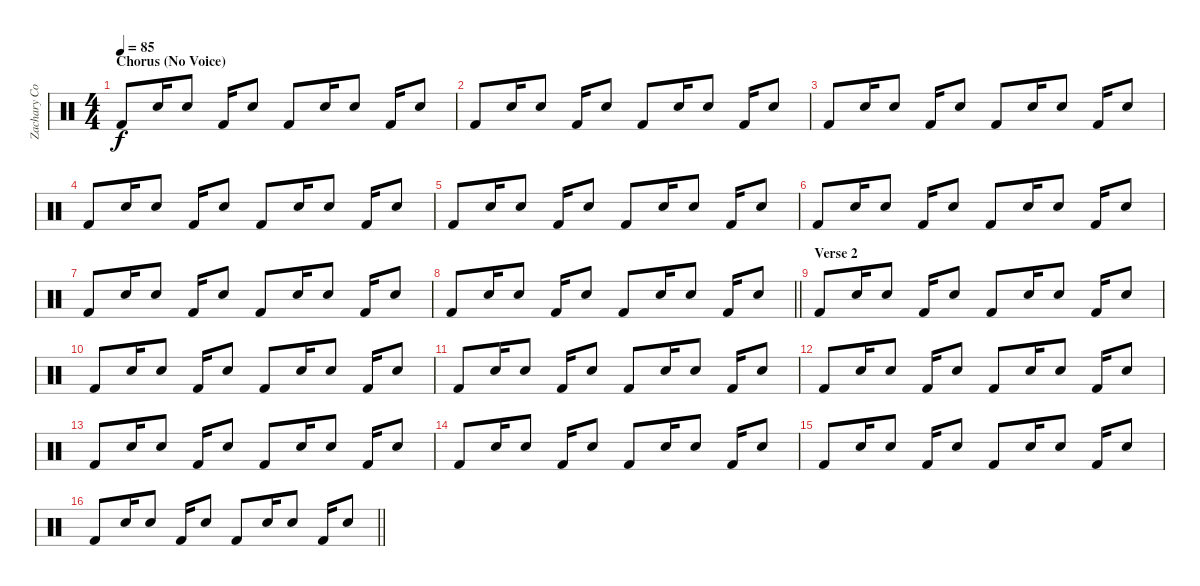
\track ("Zachary Cole Smith" "Zachary Co") {instrument percussion}
\staff {score}
\articulation defaults
\ts (4 4)
\section ("" "Chorus (No Voice)")
\tempo 85
\clef neutral
\ks c "Kick (hit) 2".8{dy f} "Electric Snare (hit)".16 "Electric Snare (hit)".8 "Kick (hit) 2".16 "Electric Snare (hit)".8 "Kick (hit) 2".8 "Electric Snare (hit)".16 "Electric Snare (hit)".8 "Kick (hit) 2".16 "Electric Snare (hit)".8
|
"Kick (hit) 2".8 "Electric Snare (hit)".16 "Electric Snare (hit)".8 "Kick (hit) 2".16 "Electric Snare (hit)".8 "Kick (hit) 2".8 "Electric Snare (hit)".16 "Electric Snare (hit)".8 "Kick (hit) 2".16 "Electric Snare (hit)".8 |
"Kick (hit) 2".8 "Electric Snare (hit)".16 "Electric Snare (hit)".8 "Kick (hit) 2".16 "Electric Snare (hit)".8 "Kick (hit) 2".8 "Electric Snare (hit)".16 "Electric Snare (hit)".8 "Kick (hit) 2".16 "Electric Snare (hit)".8 |
"Kick (hit) 2".8 "Electric Snare (hit)".16 "Electric Snare (hit)".8 "Kick (hit) 2".16 "Electric Snare (hit)".8 "Kick (hit) 2".8 "Electric Snare (hit)".16 "Electric Snare (hit)".8 "Kick (hit) 2".16 "Electric Snare (hit)".8 |
"Kick (hit) 2".8 "Electric Snare (hit)".16 "Electric Snare (hit)".8 "Kick (hit) 2".16 "Electric Snare (hit)".8 "Kick (hit) 2".8 "Electric Snare (hit)".16 "Electric Snare (hit)".8 "Kick (hit) 2".16 "Electric Snare (hit)".8 |
"Kick (hit) 2".8 "Electric Snare (hit)".16 "Electric Snare (hit)".8 "Kick (hit) 2".16 "Electric Snare (hit)".8 "Kick (hit) 2".8 "Electric Snare (hit)".16 "Electric Snare (hit)".8 "Kick (hit) 2".16 "Electric Snare (hit)".8 |
"Kick (hit) 2".8 "Electric Snare (hit)".16 "Electric Snare (hit)".8 "Kick (hit) 2".16 "Electric Snare (hit)".8 "Kick (hit) 2".8 "Electric Snare (hit)".16 "Electric Snare (hit)".8 "Kick (hit) 2".16 "Electric Snare (hit)".8 |
\barLineRight lightlight "Kick (hit) 2".8 "Electric Snare (hit)".16 "Electric Snare (hit)".8 "Kick (hit) 2".16 "Electric Snare (hit)".8 "Kick (hit) 2".8 "Electric Snare (hit)".16 "Electric Snare (hit)".8 "Kick (hit) 2".16 "Electric Snare (hit)".8
|
\section ("" "Verse 2")
"Kick (hit) 2".8 "Electric Snare (hit)".16 "Electric Snare (hit)".8 "Kick (hit) 2".16 "Electric Snare (hit)".8 "Kick (hit) 2".8 "Electric Snare (hit)".16 "Electric Snare (hit)".8 "Kick (hit) 2".16 "Electric Snare (hit)".8 |
"Kick (hit) 2".8 "Electric Snare (hit)".16 "Electric Snare (hit)".8 "Kick (hit) 2".16 "Electric Snare (hit)".8 "Kick (hit) 2".8 "Electric Snare (hit)".16 "Electric Snare (hit)".8 "Kick (hit) 2".16 "Electric Snare (hit)".8 |
"Kick (hit) 2".8 "Electric Snare (hit)".16 "Electric Snare (hit)".8 "Kick (hit) 2".16 "Electric Snare (hit)".8 "Kick (hit) 2".8 "Electric Snare (hit)".16 "Electric Snare (hit)".8 "Kick (hit) 2".16 "Electric Snare (hit)".8 |
"Kick (hit) 2".8 "Electric Snare (hit)".16 "Electric Snare (hit)".8 "Kick (hit) 2".16 "Electric Snare (hit)".8 "Kick (hit) 2".8 "Electric Snare (hit)".16 "Electric Snare (hit)".8 "Kick (hit) 2".16 "Electric Snare (hit)".8 |
"Kick (hit) 2".8 "Electric Snare (hit)".16 "Electric Snare (hit)".8 "Kick (hit) 2".16 "Electric Snare (hit)".8 "Kick (hit) 2".8 "Electric Snare (hit)".16 "Electric Snare (hit)".8 "Kick (hit) 2".16 "Electric Snare (hit)".8 |
"Kick (hit) 2".8 "Electric Snare (hit)".16 "Electric Snare (hit)".8 "Kick (hit) 2".16 "Electric Snare (hit)".8 "Kick (hit) 2".8 "Electric Snare (hit)".16 "Electric Snare (hit)".8 "Kick (hit) 2".16 "Electric Snare (hit)".8 |
"Kick (hit) 2".8 "Electric Snare (hit)".16 "Electric Snare (hit)".8 "Kick (hit) 2".16 "Electric Snare (hit)".8 "Kick (hit) 2".8 "Electric Snare (hit)".16 "Electric Snare (hit)".8 "Kick (hit) 2".16 "Electric Snare (hit)".8 |
\barLineRight lightlight "Kick (hit) 2".8 "Electric Snare (hit)".16 "Electric Snare (hit)".8 "Kick (hit) 2".16 "Electric Snare (hit)".8 "Kick (hit) 2".8 "Electric Snare (hit)".16 "Electric Snare (hit)".8 "Kick (hit) 2".16 "Electric Snare (hit)".8
